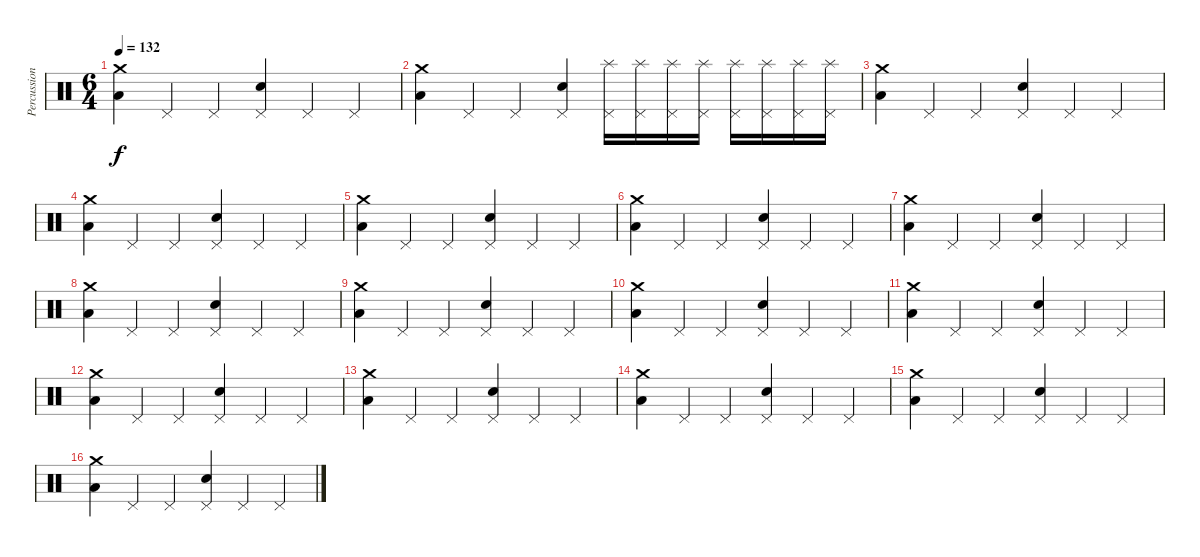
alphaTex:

\track ("Percussion" "Percussion") {instrument percussion}
\staff {score}
\articulation defaults
\ts (6 4)
\tempo 132
\clef neutral
\ks c
("Crash medium (hit)" "Low Floor Tom (hit)").4{dy f} "Pedal Hi-Hat (hit)".4 "Pedal Hi-Hat (hit)".4 ("Pedal Hi-Hat (hit)" "Snare (hit) 2").4 "Pedal Hi-Hat (hit)".4 "Pedal Hi-Hat (hit)".4 |
("Crash medium (hit)" "Low Floor Tom (hit)").4 "Pedal Hi-Hat (hit)".4 "Pedal Hi-Hat (hit)".4 ("Pedal Hi-Hat (hit)" "Snare (hit) 2").4 ("Pedal Hi-Hat (hit)" "Splash (hit)").16 ("Pedal Hi-Hat (hit)" "Splash (hit)").16 ("Pedal Hi-Hat (hit)" "Splash (hit)").16 ("Pedal Hi-Hat (hit)" "Splash (hit)").16 ("Pedal Hi-Hat (hit)" "Splash (hit)").16 ("Pedal Hi-Hat (hit)" "Splash (hit)").16 ("Pedal Hi-Hat (hit)" "Splash (hit)").16 ("Pedal Hi-Hat (hit)" "Splash (hit)").16 |
("Crash medium (hit)" "Low Floor Tom (hit)").4 "Pedal Hi-Hat (hit)".4 "Pedal Hi-Hat (hit)".4 ("Pedal Hi-Hat (hit)" "Snare (hit) 2").4 "Pedal Hi-Hat (hit)".4 "Pedal Hi-Hat (hit)".4 |
("Crash medium (hit)" "Low Floor Tom (hit)").4 "Pedal Hi-Hat (hit)".4 "Pedal Hi-Hat (hit)".4 ("Pedal Hi-Hat (hit)" "Snare (hit) 2").4 "Pedal Hi-Hat (hit)".4 "Pedal Hi-Hat (hit)".4 |
("Crash medium (hit)" "Low Floor Tom (hit)").4 "Pedal Hi-Hat (hit)".4 "Pedal Hi-Hat (hit)".4 ("Pedal Hi-Hat (hit)" "Snare (hit) 2").4 "Pedal Hi-Hat (hit)".4 "Pedal Hi-Hat (hit)".4 |
("Crash medium (hit)" "Low Floor Tom (hit)").4 "Pedal Hi-Hat (hit)".4 "Pedal Hi-Hat (hit)".4 ("Pedal Hi-Hat (hit)" "Snare (hit) 2").4 "Pedal Hi-Hat (hit)".4 "Pedal Hi-Hat (hit)".4 |
("Crash medium (hit)" "Low Floor Tom (hit)").4 "Pedal Hi-Hat (hit)".4 "Pedal Hi-Hat (hit)".4 ("Pedal Hi-Hat (hit)" "Snare (hit) 2").4 "Pedal Hi-Hat (hit)".4 "Pedal Hi-Hat (hit)".4 |
("Crash medium (hit)" "Low Floor Tom (hit)").4 "Pedal Hi-Hat (hit)".4 "Pedal Hi-Hat (hit)".4 ("Pedal Hi-Hat (hit)" "Snare (hit) 2").4 "Pedal Hi-Hat (hit)".4 "Pedal Hi-Hat (hit)".4 |
("Crash medium (hit)" "Low Floor Tom (hit)").4 "Pedal Hi-Hat (hit)".4 "Pedal Hi-Hat (hit)".4 ("Pedal Hi-Hat (hit)" "Snare (hit) 2").4 "Pedal Hi-Hat (hit)".4 "Pedal Hi-Hat (hit)".4 |
("Crash medium (hit)" "Low Floor Tom (hit)").4 "Pedal Hi-Hat (hit)".4 "Pedal Hi-Hat (hit)".4 ("Pedal Hi-Hat (hit)" "Snare (hit) 2").4 "Pedal Hi-Hat (hit)".4 "Pedal Hi-Hat (hit)".4 |
("Crash medium (hit)" "Low Floor Tom (hit)").4 "Pedal Hi-Hat (hit)".4 "Pedal Hi-Hat (hit)".4 ("Pedal Hi-Hat (hit)" "Snare (hit) 2").4 "Pedal Hi-Hat (hit)".4 "Pedal Hi-Hat (hit)".4 |
("Crash medium (hit)" "Low Floor Tom (hit)").4 "Pedal Hi-Hat (hit)".4 "Pedal Hi-Hat (hit)".4 ("Pedal Hi-Hat (hit)" "Snare (hit) 2").4 "Pedal Hi-Hat (hit)".4 "Pedal Hi-Hat (hit)".4 |
("Crash medium (hit)" "Low Floor Tom (hit)").4 "Pedal Hi-Hat (hit)".4 "Pedal Hi-Hat (hit)".4 ("Pedal Hi-Hat (hit)" "Snare (hit) 2").4 "Pedal Hi-Hat (hit)".4 "Pedal Hi-Hat (hit)".4 |
("Crash medium (hit)" "Low Floor Tom (hit)").4 "Pedal Hi-Hat (hit)".4 "Pedal Hi-Hat (hit)".4 ("Pedal Hi-Hat (hit)" "Snare (hit) 2").4 "Pedal Hi-Hat (hit)".4 "Pedal Hi-Hat (hit)".4 |
("Crash medium (hit)" "Low Floor Tom (hit)").4 "Pedal Hi-Hat (hit)".4 "Pedal Hi-Hat (hit)".4 ("Pedal Hi-Hat (hit)" "Snare (hit) 2").4 "Pedal Hi-Hat (hit)".4 "Pedal Hi-Hat (hit)".4 |
("Crash medium (hit)" "Low Floor Tom (hit)").4 "Pedal Hi-Hat (hit)".4 "Pedal Hi-Hat (hit)".4 ("Pedal Hi-Hat (hit)" "Snare (hit) 2").4 "Pedal Hi-Hat (hit)".4 "Pedal Hi-Hat (hit)".4
